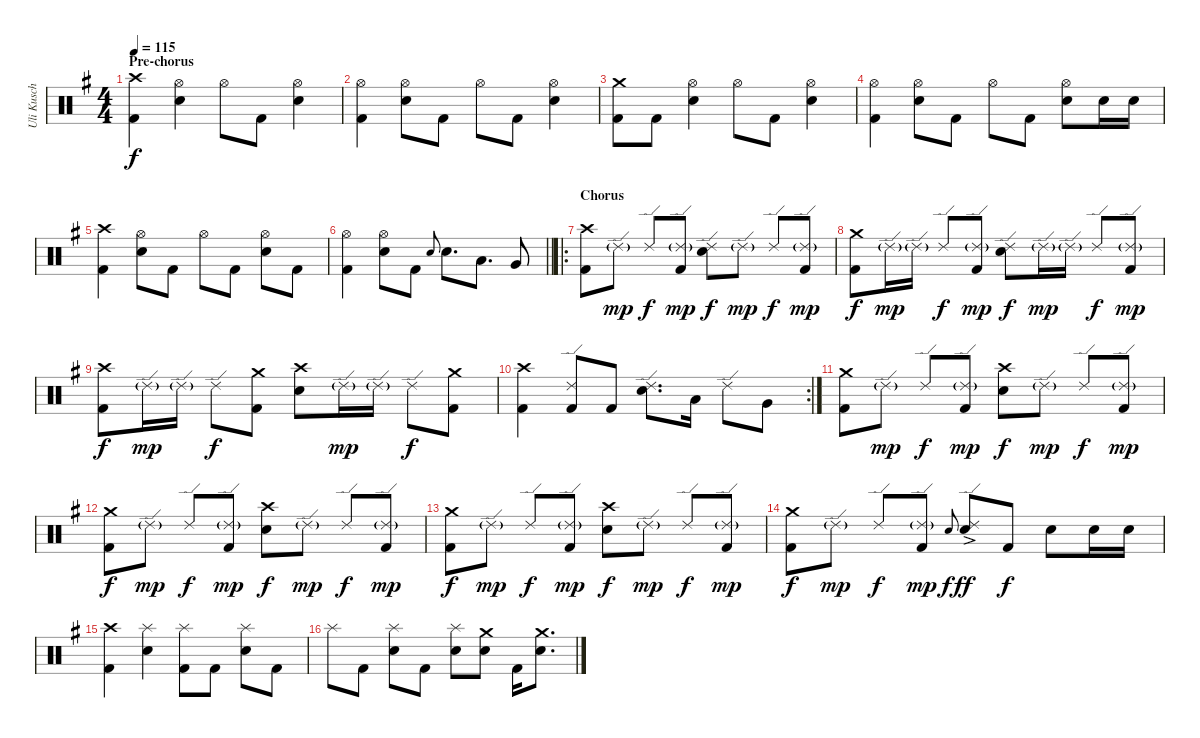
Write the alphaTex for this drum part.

\track ("Uli Kusch" "Uli Kusch") {instrument percussion}
\staff {score}
\articulation defaults
\ts (4 4)
\section ("" "Pre-chorus")
\tempo 115
\clef neutral
\ks eminor
("Crash high (hit)" "Kick (hit) 2").4{dy f} ("Hi-Hat (open)" "Snare (hit) 2").4 "Hi-Hat (open)".8 "Kick (hit) 2".8 ("Hi-Hat (open)" "Snare (hit) 2").4 |
("Hi-Hat (open)" "Kick (hit) 2").4 ("Hi-Hat (open)" "Snare (hit) 2").8 "Kick (hit) 2".8 "Hi-Hat (open)".8 "Kick (hit) 2".8 ("Hi-Hat (open)" "Snare (hit) 2").4 |
("Crash medium (hit)" "Kick (hit) 2").8 "Kick (hit) 2".8 ("Hi-Hat (open)" "Snare (hit) 2").4 "Hi-Hat (open)".8 "Kick (hit) 2".8 ("Hi-Hat (open)" "Snare (hit) 2").4 |
("Hi-Hat (open)" "Kick (hit) 2").4 ("Hi-Hat (open)" "Snare (hit) 2").8 "Kick (hit) 2".8 "Hi-Hat (open)".8 "Kick (hit) 2".8 ("Hi-Hat (open)" "Snare (hit) 2").8 "Snare (hit) 2".16 "Snare (hit) 2".16 |
("Crash high (hit)" "Kick (hit) 2").4 ("Hi-Hat (open)" "Snare (hit) 2").8 "Kick (hit) 2".8 "Hi-Hat (open)".8 "Kick (hit) 2".8 ("Hi-Hat (open)" "Snare (hit) 2").8 "Kick (hit) 2".8 |
\barLineRight lightlight
("Hi-Hat (open)" "Kick (hit) 2").4 ("Hi-Hat (open)" "Snare (hit) 2").8 "Kick (hit) 2".8 "Snare (hit) 2".8{gr onbeat} "Snare (hit) 2".8{d} "Low Tom (hit)".8{d} "Very Low Tom (hit)".8 |
\ro
\section ("" "Chorus")
("Crash high (hit)" "Kick (hit) 2").8 "Ride (edge) 2"{g}.8{dy mp} "Ride (edge) 2".8{dy f} ("Ride (edge) 2"{g} "Kick (hit) 2").8{dy mp} ("Ride (edge) 2" "Snare (hit) 2").8{dy f} "Ride (edge) 2"{g}.8{dy mp} "Ride (edge) 2".8{dy f} ("Ride (edge) 2"{g} "Kick (hit) 2").8{dy mp} |
("Crash medium (hit)" "Kick (hit) 2").8{dy f} "Ride (edge) 2"{g}.16{dy mp} "Ride (edge) 2"{g}.16 "Ride (edge) 2".8{dy f} ("Ride (edge) 2"{g} "Kick (hit) 2").8{dy mp} ("Ride (edge) 2" "Snare (hit) 2").8{dy f} "Ride (edge) 2"{g}.16{dy mp} "Ride (edge) 2"{g}.16 "Ride (edge) 2".8{dy f} ("Ride (edge) 2"{g} "Kick (hit) 2").8{dy mp} |
("Crash high (hit)" "Kick (hit) 2").8{dy f} "Ride (edge) 2"{g}.16{dy mp} "Ride (edge) 2"{g}.16 "Ride (edge) 2".8{dy f} ("Crash medium (hit)" "Kick (hit) 2").8 ("Crash high (hit)" "Snare (hit) 2").8 "Ride (edge) 2"{g}.16{dy mp} "Ride (edge) 2"{g}.16 "Ride (edge) 2".8{dy f} ("Crash medium (hit)" "Kick (hit) 2").8 |
\rc 2
("Crash high (hit)" "Kick (hit) 2").4 ("Ride (edge) 2" "Kick (hit) 2").8 "Kick (hit) 2".8 ("Ride (edge) 2" "Snare (hit) 2").8{d} "Low Tom (hit)".16 "Ride (edge) 2".8 "Very Low Tom (hit)".8 |
("Crash medium (hit)" "Kick (hit) 2").8 "Ride (edge) 2"{g}.8{dy mp} "Ride (edge) 2".8{dy f} ("Ride (edge) 2"{g} "Kick (hit) 2").8{dy mp} ("Crash high (hit)" "Snare (hit) 2").8{dy f} "Ride (edge) 2"{g}.8{dy mp} "Ride (edge) 2".8{dy f} ("Ride (edge) 2"{g} "Kick (hit) 2").8{dy mp} |
("Crash medium (hit)" "Kick (hit) 2").8{dy f} "Ride (edge) 2"{g}.8{dy mp} "Ride (edge) 2".8{dy f} ("Ride (edge) 2"{g} "Kick (hit) 2").8{dy mp} ("Crash high (hit)" "Snare (hit) 2").8{dy f} "Ride (edge) 2"{g}.8{dy mp} "Ride (edge) 2".8{dy f} ("Ride (edge) 2"{g} "Kick (hit) 2").8{dy mp} |
("Crash medium (hit)" "Kick (hit) 2").8{dy f} "Ride (edge) 2"{g}.8{dy mp} "Ride (edge) 2".8{dy f} ("Ride (edge) 2"{g} "Kick (hit) 2").8{dy mp} ("Crash high (hit)" "Snare (hit) 2").8{dy f} "Ride (edge) 2"{g}.8{dy mp} "Ride (edge) 2".8{dy f} ("Ride (edge) 2"{g} "Kick (hit) 2").8{dy mp} |
("Crash medium (hit)" "Kick (hit) 2").8{dy f} "Ride (edge) 2"{g}.8{dy mp} "Ride (edge) 2".8{dy f} ("Ride (edge) 2"{g} "Kick (hit) 2").8{dy mp} "Snare (hit) 2".8{gr onbeat dy f} ("Ride (edge) 2"{ac} "Snare (hit) 2").8{dy ff} "Kick (hit) 2".8{dy f} "Snare (hit) 2".8 "Snare (hit) 2".16 "Snare (hit) 2".16 |
("Crash high (hit)" "Kick (hit) 2").4 ("Splash (hit)" "Snare (hit) 2").4 ("Splash (hit)" "Kick (hit) 2").8 "Kick (hit) 2".8 ("Splash (hit)" "Snare (hit) 2").8 "Kick (hit) 2".8 |
"Splash (hit)".8 "Kick (hit) 2".8 ("Splash (hit)" "Snare (hit) 2").8 "Kick (hit) 2".8 ("Splash (hit)" "Snare (hit) 2").8 ("Crash medium (hit)" "Snare (hit) 2").8 "Kick (hit) 2".16 ("Crash medium (hit)" "Snare (hit) 2").8{d}
